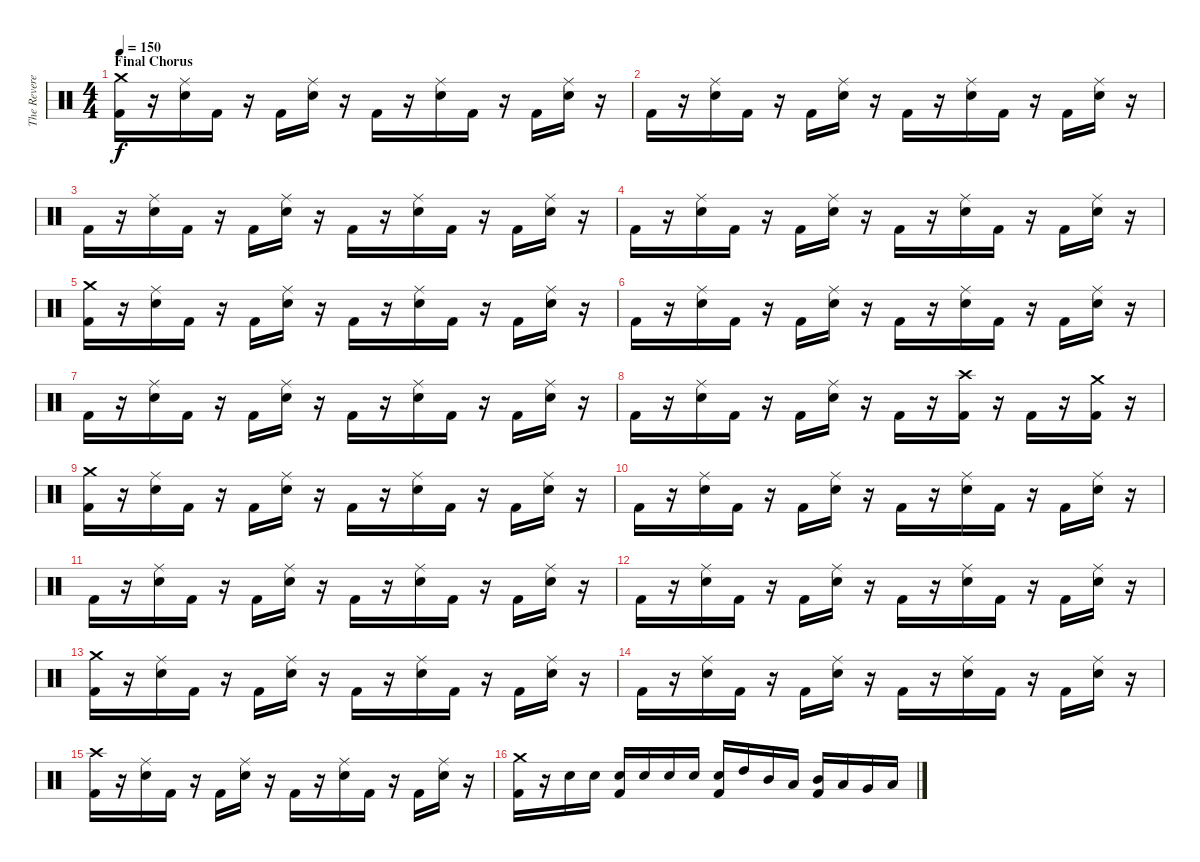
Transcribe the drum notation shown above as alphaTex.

\track ("The Reverend" "The Revere") {instrument percussion}
\staff {score}
\articulation defaults
\ts (4 4)
\section ("" "Final Chorus")
\tempo 150
\clef neutral
\ks c
("Crash medium (hit)" "Kick (hit) 2").16{dy f} r.16 ("Ride (middle)" "Electric Snare (hit)").16 "Kick (hit) 2".16 r.16 "Kick (hit) 2".16 ("Ride (middle)" "Electric Snare (hit)").16 r.16 "Kick (hit) 2".16 r.16 ("Ride (middle)" "Electric Snare (hit)").16 "Kick (hit) 2".16 r.16 "Kick (hit) 2".16 ("Ride (middle)" "Electric Snare (hit)").16 r.16 |
"Kick (hit) 2".16 r.16 ("Ride (middle)" "Electric Snare (hit)").16 "Kick (hit) 2".16 r.16 "Kick (hit) 2".16 ("Ride (middle)" "Electric Snare (hit)").16 r.16 "Kick (hit) 2".16 r.16 ("Ride (middle)" "Electric Snare (hit)").16 "Kick (hit) 2".16 r.16 "Kick (hit) 2".16 ("Ride (middle)" "Electric Snare (hit)").16 r.16 |
"Kick (hit) 2".16 r.16 ("Ride (middle)" "Electric Snare (hit)").16 "Kick (hit) 2".16 r.16 "Kick (hit) 2".16 ("Ride (middle)" "Electric Snare (hit)").16 r.16 "Kick (hit) 2".16 r.16 ("Ride (middle)" "Electric Snare (hit)").16 "Kick (hit) 2".16 r.16 "Kick (hit) 2".16 ("Ride (middle)" "Electric Snare (hit)").16 r.16 |
"Kick (hit) 2".16 r.16 ("Ride (middle)" "Electric Snare (hit)").16 "Kick (hit) 2".16 r.16 "Kick (hit) 2".16 ("Ride (middle)" "Electric Snare (hit)").16 r.16 "Kick (hit) 2".16 r.16 ("Ride (middle)" "Electric Snare (hit)").16 "Kick (hit) 2".16 r.16 "Kick (hit) 2".16 ("Ride (middle)" "Electric Snare (hit)").16 r.16 |
("Crash medium (hit)" "Kick (hit) 2").16 r.16 ("Ride (middle)" "Electric Snare (hit)").16 "Kick (hit) 2".16 r.16 "Kick (hit) 2".16 ("Ride (middle)" "Electric Snare (hit)").16 r.16 "Kick (hit) 2".16 r.16 ("Ride (middle)" "Electric Snare (hit)").16 "Kick (hit) 2".16 r.16 "Kick (hit) 2".16 ("Ride (middle)" "Electric Snare (hit)").16 r.16 |
"Kick (hit) 2".16 r.16 ("Ride (middle)" "Electric Snare (hit)").16 "Kick (hit) 2".16 r.16 "Kick (hit) 2".16 ("Ride (middle)" "Electric Snare (hit)").16 r.16 "Kick (hit) 2".16 r.16 ("Ride (middle)" "Electric Snare (hit)").16 "Kick (hit) 2".16 r.16 "Kick (hit) 2".16 ("Ride (middle)" "Electric Snare (hit)").16 r.16 |
"Kick (hit) 2".16 r.16 ("Ride (middle)" "Electric Snare (hit)").16 "Kick (hit) 2".16 r.16 "Kick (hit) 2".16 ("Ride (middle)" "Electric Snare (hit)").16 r.16 "Kick (hit) 2".16 r.16 ("Ride (middle)" "Electric Snare (hit)").16 "Kick (hit) 2".16 r.16 "Kick (hit) 2".16 ("Ride (middle)" "Electric Snare (hit)").16 r.16 |
"Kick (hit) 2".16 r.16 ("Ride (middle)" "Electric Snare (hit)").16 "Kick (hit) 2".16 r.16 "Kick (hit) 2".16 ("Ride (middle)" "Electric Snare (hit)").16 r.16 "Kick (hit) 2".16 r.16 ("Crash high (hit)" "Kick (hit) 2").16 r.16 "Kick (hit) 2".16 r.16 ("Crash medium (hit)" "Kick (hit) 2").16 r.16 |
("Crash medium (hit)" "Kick (hit) 2").16 r.16 ("Ride (middle)" "Electric Snare (hit)").16 "Kick (hit) 2".16 r.16 "Kick (hit) 2".16 ("Ride (middle)" "Electric Snare (hit)").16 r.16 "Kick (hit) 2".16 r.16 ("Ride (middle)" "Electric Snare (hit)").16 "Kick (hit) 2".16 r.16 "Kick (hit) 2".16 ("Ride (middle)" "Electric Snare (hit)").16 r.16 |
"Kick (hit) 2".16 r.16 ("Ride (middle)" "Electric Snare (hit)").16 "Kick (hit) 2".16 r.16 "Kick (hit) 2".16 ("Ride (middle)" "Electric Snare (hit)").16 r.16 "Kick (hit) 2".16 r.16 ("Ride (middle)" "Electric Snare (hit)").16 "Kick (hit) 2".16 r.16 "Kick (hit) 2".16 ("Ride (middle)" "Electric Snare (hit)").16 r.16 |
"Kick (hit) 2".16 r.16 ("Ride (middle)" "Electric Snare (hit)").16 "Kick (hit) 2".16 r.16 "Kick (hit) 2".16 ("Ride (middle)" "Electric Snare (hit)").16 r.16 "Kick (hit) 2".16 r.16 ("Ride (middle)" "Electric Snare (hit)").16 "Kick (hit) 2".16 r.16 "Kick (hit) 2".16 ("Ride (middle)" "Electric Snare (hit)").16 r.16 |
"Kick (hit) 2".16 r.16 ("Ride (middle)" "Electric Snare (hit)").16 "Kick (hit) 2".16 r.16 "Kick (hit) 2".16 ("Ride (middle)" "Electric Snare (hit)").16 r.16 "Kick (hit) 2".16 r.16 ("Ride (middle)" "Electric Snare (hit)").16 "Kick (hit) 2".16 r.16 "Kick (hit) 2".16 ("Ride (middle)" "Electric Snare (hit)").16 r.16 |
("Crash medium (hit)" "Kick (hit) 2").16 r.16 ("Ride (middle)" "Electric Snare (hit)").16 "Kick (hit) 2".16 r.16 "Kick (hit) 2".16 ("Ride (middle)" "Electric Snare (hit)").16 r.16 "Kick (hit) 2".16 r.16 ("Ride (middle)" "Electric Snare (hit)").16 "Kick (hit) 2".16 r.16 "Kick (hit) 2".16 ("Ride (middle)" "Electric Snare (hit)").16 r.16 |
"Kick (hit) 2".16 r.16 ("Ride (middle)" "Electric Snare (hit)").16 "Kick (hit) 2".16 r.16 "Kick (hit) 2".16 ("Ride (middle)" "Electric Snare (hit)").16 r.16 "Kick (hit) 2".16 r.16 ("Ride (middle)" "Electric Snare (hit)").16 "Kick (hit) 2".16 r.16 "Kick (hit) 2".16 ("Ride (middle)" "Electric Snare (hit)").16 r.16 |
("Crash high (hit)" "Kick (hit) 2").16 r.16 ("Ride (middle)" "Electric Snare (hit)").16 "Kick (hit) 2".16 r.16 "Kick (hit) 2".16 ("Ride (middle)" "Electric Snare (hit)").16 r.16 "Kick (hit) 2".16 r.16 ("Ride (middle)" "Electric Snare (hit)").16 "Kick (hit) 2".16 r.16 "Kick (hit) 2".16 ("Ride (middle)" "Electric Snare (hit)").16 r.16 |
("Crash medium (hit)" "Kick (hit) 2").16 r.16 "Electric Snare (hit)".16 "Electric Snare (hit)".16 ("Electric Snare (hit)" "Kick (hit) 2").16 "Electric Snare (hit)".16 "Electric Snare (hit)".16 "Electric Snare (hit)".16 ("Electric Snare (hit)" "Kick (hit) 2").16 "High Tom (hit)".16 "Mid Tom (hit)".16 "Low Tom (hit)".16 ("Mid Tom (hit)" "Kick (hit) 2").16 "Low Tom (hit)".16 "Very Low Tom (hit)".16 "Low Floor Tom (hit)".16
